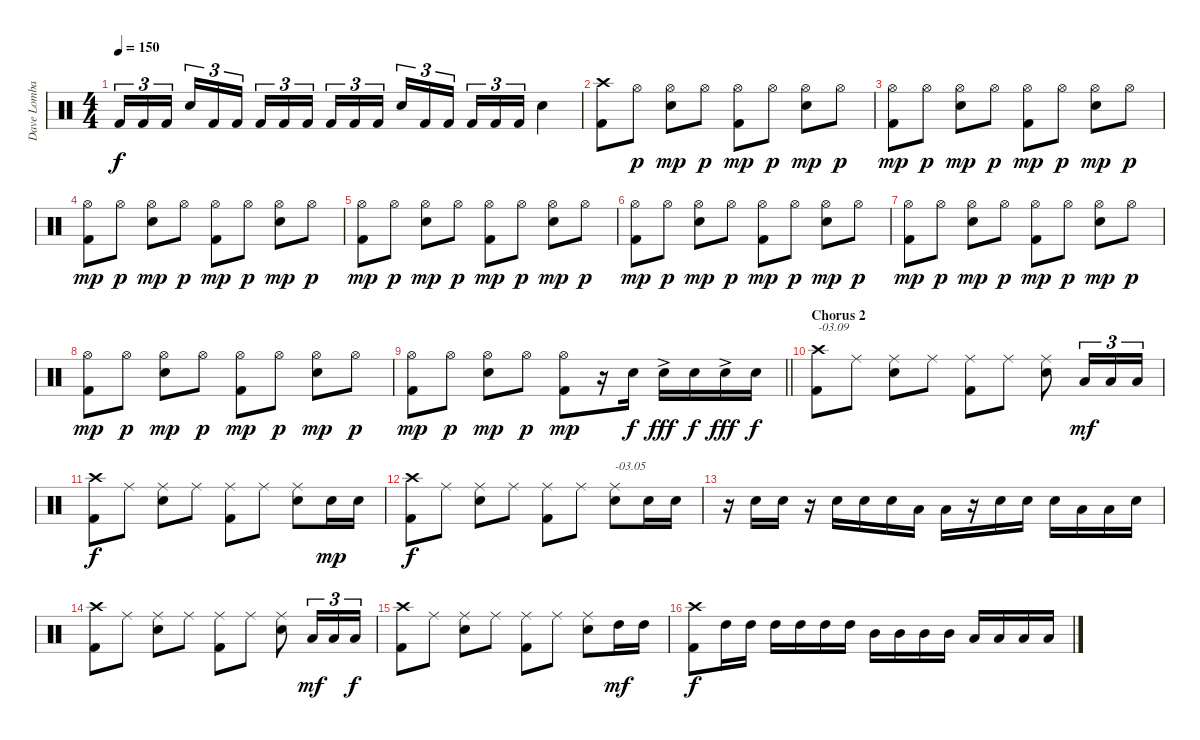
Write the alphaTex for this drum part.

\track ("Dave Lombardo (Drums)" "Dave Lomba") {instrument percussion}
\staff {score}
\articulation defaults
\ts (4 4)
\tempo 150
\clef neutral
\ks c "Kick (hit) 2".16{tu (3 2) dy f} "Kick (hit) 2".16{tu (3 2)} "Kick (hit) 2".16{tu (3 2) beam splitsecondary} "Electric Snare (hit)".16{tu (3 2)} "Kick (hit) 2".16{tu (3 2)} "Kick (hit) 2".16{tu (3 2)} "Kick (hit) 2".16{tu (3 2)} "Kick (hit) 2".16{tu (3 2)} "Kick (hit) 2".16{tu (3 2) beam splitsecondary} "Kick (hit) 2".16{tu (3 2)} "Kick (hit) 2".16{tu (3 2)} "Kick (hit) 2".16{tu (3 2)} "Electric Snare (hit)".16{tu (3 2)} "Kick (hit) 2".16{tu (3 2)} "Kick (hit) 2".16{tu (3 2) beam splitsecondary} "Kick (hit) 2".16{tu (3 2)} "Kick (hit) 2".16{tu (3 2)} "Kick (hit) 2".16{tu (3 2)} "Electric Snare (hit)".4
|
("Crash high (hit)" "Kick (hit) 2").8 "Hi-Hat (open)".8{dy p} ("Hi-Hat (open)" "Electric Snare (hit)").8{dy mp} "Hi-Hat (open)".8{dy p} ("Hi-Hat (open)" "Kick (hit) 2").8{dy mp} "Hi-Hat (open)".8{dy p} ("Hi-Hat (open)" "Electric Snare (hit)").8{dy mp} "Hi-Hat (open)".8{dy p} |
("Hi-Hat (open)" "Kick (hit) 2").8{dy mp} "Hi-Hat (open)".8{dy p} ("Hi-Hat (open)" "Electric Snare (hit)").8{dy mp} "Hi-Hat (open)".8{dy p} ("Hi-Hat (open)" "Kick (hit) 2").8{dy mp} "Hi-Hat (open)".8{dy p} ("Hi-Hat (open)" "Electric Snare (hit)").8{dy mp} "Hi-Hat (open)".8{dy p} |
("Hi-Hat (open)" "Kick (hit) 2").8{dy mp} "Hi-Hat (open)".8{dy p} ("Hi-Hat (open)" "Electric Snare (hit)").8{dy mp} "Hi-Hat (open)".8{dy p} ("Hi-Hat (open)" "Kick (hit) 2").8{dy mp} "Hi-Hat (open)".8{dy p} ("Hi-Hat (open)" "Electric Snare (hit)").8{dy mp} "Hi-Hat (open)".8{dy p} |
("Hi-Hat (open)" "Kick (hit) 2").8{dy mp} "Hi-Hat (open)".8{dy p} ("Hi-Hat (open)" "Electric Snare (hit)").8{dy mp} "Hi-Hat (open)".8{dy p} ("Hi-Hat (open)" "Kick (hit) 2").8{dy mp} "Hi-Hat (open)".8{dy p} ("Hi-Hat (open)" "Electric Snare (hit)").8{dy mp} "Hi-Hat (open)".8{dy p} |
("Hi-Hat (open)" "Kick (hit) 2").8{dy mp} "Hi-Hat (open)".8{dy p} ("Hi-Hat (open)" "Electric Snare (hit)").8{dy mp} "Hi-Hat (open)".8{dy p} ("Hi-Hat (open)" "Kick (hit) 2").8{dy mp} "Hi-Hat (open)".8{dy p} ("Hi-Hat (open)" "Electric Snare (hit)").8{dy mp} "Hi-Hat (open)".8{dy p} |
("Hi-Hat (open)" "Kick (hit) 2").8{dy mp} "Hi-Hat (open)".8{dy p} ("Hi-Hat (open)" "Electric Snare (hit)").8{dy mp} "Hi-Hat (open)".8{dy p} ("Hi-Hat (open)" "Kick (hit) 2").8{dy mp} "Hi-Hat (open)".8{dy p} ("Hi-Hat (open)" "Electric Snare (hit)").8{dy mp} "Hi-Hat (open)".8{dy p} |
("Hi-Hat (open)" "Kick (hit) 2").8{dy mp} "Hi-Hat (open)".8{dy p} ("Hi-Hat (open)" "Electric Snare (hit)").8{dy mp} "Hi-Hat (open)".8{dy p} ("Hi-Hat (open)" "Kick (hit) 2").8{dy mp} "Hi-Hat (open)".8{dy p} ("Hi-Hat (open)" "Electric Snare (hit)").8{dy mp} "Hi-Hat (open)".8{dy p} |
\barLineRight lightlight
("Hi-Hat (open)" "Kick (hit) 2").8{dy mp} "Hi-Hat (open)".8{dy p} ("Hi-Hat (open)" "Electric Snare (hit)").8{dy mp} "Hi-Hat (open)".8{dy p} ("Hi-Hat (open)" "Kick (hit) 2").8{dy mp} r.16 "Electric Snare (hit)".16{dy f} "Electric Snare (hit)"{ac}.16{dy fff} "Electric Snare (hit)".16{dy f} "Electric Snare (hit)"{ac}.16{dy fff} "Electric Snare (hit)".16{dy f} |
\section ("" "Chorus 2")
("Crash high (hit)" "Kick (hit) 2").8{txt "-03.09"} "Ride (middle)".8 ("Ride (middle)" "Electric Snare (hit)").8 "Ride (middle)".8 ("Ride (middle)" "Kick (hit) 2").8 "Ride (middle)".8 ("Ride (middle)" "Electric Snare (hit)").8 "Low Tom (hit)".16{tu (3 2) dy mf} "Low Tom (hit)".16{tu (3 2)} "Low Tom (hit)".16{tu (3 2)} |
("Crash high (hit)" "Kick (hit) 2").8{dy f} "Ride (middle)".8 ("Ride (middle)" "Electric Snare (hit)").8 "Ride (middle)".8 ("Ride (middle)" "Kick (hit) 2").8 "Ride (middle)".8 ("Ride (middle)" "Electric Snare (hit)").8 "Electric Snare (hit)".16{dy mp} "Electric Snare (hit)".16 |
("Crash high (hit)" "Kick (hit) 2").8{dy f} "Ride (middle)".8 ("Ride (middle)" "Electric Snare (hit)").8 "Ride (middle)".8 ("Ride (middle)" "Kick (hit) 2").8 "Ride (middle)".8 ("Ride (middle)" "Electric Snare (hit)").8{txt "-03.05"} "Electric Snare (hit)".16 "Electric Snare (hit)".16 |
r.16 "Electric Snare (hit)".16 "Electric Snare (hit)".16 r.16 "Electric Snare (hit)".16 "Electric Snare (hit)".16 "Electric Snare (hit)".16 "Low Tom (hit)".16 "Low Tom (hit)".16 r.16 "Electric Snare (hit)".16 "Electric Snare (hit)".16 "Electric Snare (hit)".16 "Low Tom (hit)".16 "Low Tom (hit)".16 "Electric Snare (hit)".16 |
("Crash high (hit)" "Kick (hit) 2").8 "Ride (middle)".8 ("Ride (middle)" "Electric Snare (hit)").8 "Ride (middle)".8 ("Ride (middle)" "Kick (hit) 2").8 "Ride (middle)".8 ("Ride (middle)" "Electric Snare (hit)").8 "Low Tom (hit)".16{tu (3 2) dy mf} "Low Tom (hit)".16{tu (3 2)} "Low Tom (hit)".16{tu (3 2) dy f} |
("Crash high (hit)" "Kick (hit) 2").8 "Ride (middle)".8 ("Ride (middle)" "Electric Snare (hit)").8 "Ride (middle)".8 ("Ride (middle)" "Kick (hit) 2").8 "Ride (middle)".8 ("Ride (middle)" "Electric Snare (hit)").8 "High Tom (hit)".16{dy mf} "High Tom (hit)".16 |
("Crash high (hit)" "Kick (hit) 2").8{dy f} "High Tom (hit)".16 "High Tom (hit)".16 "High Tom (hit)".16 "High Tom (hit)".16 "High Tom (hit)".16 "High Tom (hit)".16 "Mid Tom (hit)".16 "Mid Tom (hit)".16 "Mid Tom (hit)".16 "Mid Tom (hit)".16 "Low Tom (hit)".16 "Low Tom (hit)".16 "Low Tom (hit)".16 "Low Tom (hit)".16
